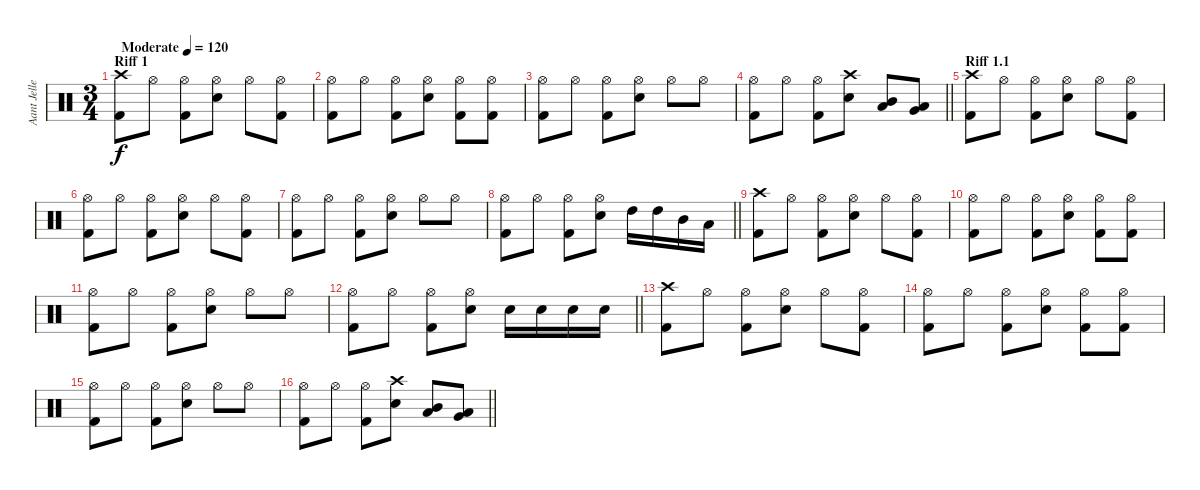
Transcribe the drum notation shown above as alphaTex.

\track ("Aant Jelle" "Aant Jelle") {instrument percussion}
\staff {score}
\articulation defaults
\ts (3 4)
\section ("" "Riff 1")
\tempo (120 "Moderate")
\clef neutral
\ks c
("Crash high (hit)" "Kick (hit) 2").8{dy f} "Hi-Hat (open)".8 ("Hi-Hat (open)" "Kick (hit) 2").8 ("Hi-Hat (open)" "Snare (hit) 2").8 "Hi-Hat (open)".8 ("Hi-Hat (open)" "Kick (hit) 2").8 |
("Hi-Hat (open)" "Kick (hit) 2").8 "Hi-Hat (open)".8 ("Hi-Hat (open)" "Kick (hit) 2").8 ("Hi-Hat (open)" "Snare (hit) 2").8 ("Hi-Hat (open)" "Kick (hit) 2").8 ("Hi-Hat (open)" "Kick (hit) 2").8 |
("Hi-Hat (open)" "Kick (hit) 2").8 "Hi-Hat (open)".8 ("Hi-Hat (open)" "Kick (hit) 2").8 ("Hi-Hat (open)" "Snare (hit) 2").8 "Hi-Hat (open)".8 "Hi-Hat (open)".8 |
\barLineRight lightlight
("Hi-Hat (open)" "Kick (hit) 2").8 "Hi-Hat (open)".8 ("Hi-Hat (open)" "Kick (hit) 2").8 ("Crash high (hit)" "Snare (hit) 2").8 ("Mid Tom (hit)" "Low Tom (hit)").8 ("Low Tom (hit)" "Very Low Tom (hit)").8 |
\section ("" "Riff 1.1")
("Crash high (hit)" "Kick (hit) 2").8 "Hi-Hat (open)".8 ("Hi-Hat (open)" "Kick (hit) 2").8 ("Hi-Hat (open)" "Snare (hit) 2").8 "Hi-Hat (open)".8 ("Hi-Hat (open)" "Kick (hit) 2").8 |
("Hi-Hat (open)" "Kick (hit) 2").8 "Hi-Hat (open)".8 ("Hi-Hat (open)" "Kick (hit) 2").8 ("Hi-Hat (open)" "Snare (hit) 2").8 "Hi-Hat (open)".8 ("Hi-Hat (open)" "Kick (hit) 2").8 |
("Hi-Hat (open)" "Kick (hit) 2").8 "Hi-Hat (open)".8 ("Hi-Hat (open)" "Kick (hit) 2").8 ("Hi-Hat (open)" "Snare (hit) 2").8 "Hi-Hat (open)".8 "Hi-Hat (open)".8 |
\barLineRight lightlight
("Hi-Hat (open)" "Kick (hit) 2").8 "Hi-Hat (open)".8 ("Hi-Hat (open)" "Kick (hit) 2").8 ("Hi-Hat (open)" "Snare (hit) 2").8 "High Tom (hit)".16 "High Tom (hit)".16 "Mid Tom (hit)".16 "Low Tom (hit)".16 |
("Crash high (hit)" "Kick (hit) 2").8 "Hi-Hat (open)".8 ("Hi-Hat (open)" "Kick (hit) 2").8 ("Hi-Hat (open)" "Snare (hit) 2").8 "Hi-Hat (open)".8 ("Hi-Hat (open)" "Kick (hit) 2").8 |
("Hi-Hat (open)" "Kick (hit) 2").8 "Hi-Hat (open)".8 ("Hi-Hat (open)" "Kick (hit) 2").8 ("Hi-Hat (open)" "Snare (hit) 2").8 ("Hi-Hat (open)" "Kick (hit) 2").8 ("Hi-Hat (open)" "Kick (hit) 2").8 |
("Hi-Hat (open)" "Kick (hit) 2").8 "Hi-Hat (open)".8 ("Hi-Hat (open)" "Kick (hit) 2").8 ("Hi-Hat (open)" "Snare (hit) 2").8 "Hi-Hat (open)".8 "Hi-Hat (open)".8 |
\barLineRight lightlight
("Hi-Hat (open)" "Kick (hit) 2").8 "Hi-Hat (open)".8 ("Hi-Hat (open)" "Kick (hit) 2").8 ("Hi-Hat (open)" "Snare (hit) 2").8 "Snare (hit) 2".16 "Snare (hit) 2".16 "Snare (hit) 2".16 "Snare (hit) 2".16 |
("Crash high (hit)" "Kick (hit) 2").8 "Hi-Hat (open)".8 ("Hi-Hat (open)" "Kick (hit) 2").8 ("Hi-Hat (open)" "Snare (hit) 2").8 "Hi-Hat (open)".8 ("Hi-Hat (open)" "Kick (hit) 2").8 |
("Hi-Hat (open)" "Kick (hit) 2").8 "Hi-Hat (open)".8 ("Hi-Hat (open)" "Kick (hit) 2").8 ("Hi-Hat (open)" "Snare (hit) 2").8 ("Hi-Hat (open)" "Kick (hit) 2").8 ("Hi-Hat (open)" "Kick (hit) 2").8 |
("Hi-Hat (open)" "Kick (hit) 2").8 "Hi-Hat (open)".8 ("Hi-Hat (open)" "Kick (hit) 2").8 ("Hi-Hat (open)" "Snare (hit) 2").8 "Hi-Hat (open)".8 "Hi-Hat (open)".8 |
\barLineRight lightlight
("Hi-Hat (open)" "Kick (hit) 2").8 "Hi-Hat (open)".8 ("Hi-Hat (open)" "Kick (hit) 2").8 ("Crash high (hit)" "Snare (hit) 2").8 ("Mid Tom (hit)" "Low Tom (hit)").8 ("Low Tom (hit)" "Very Low Tom (hit)").8
